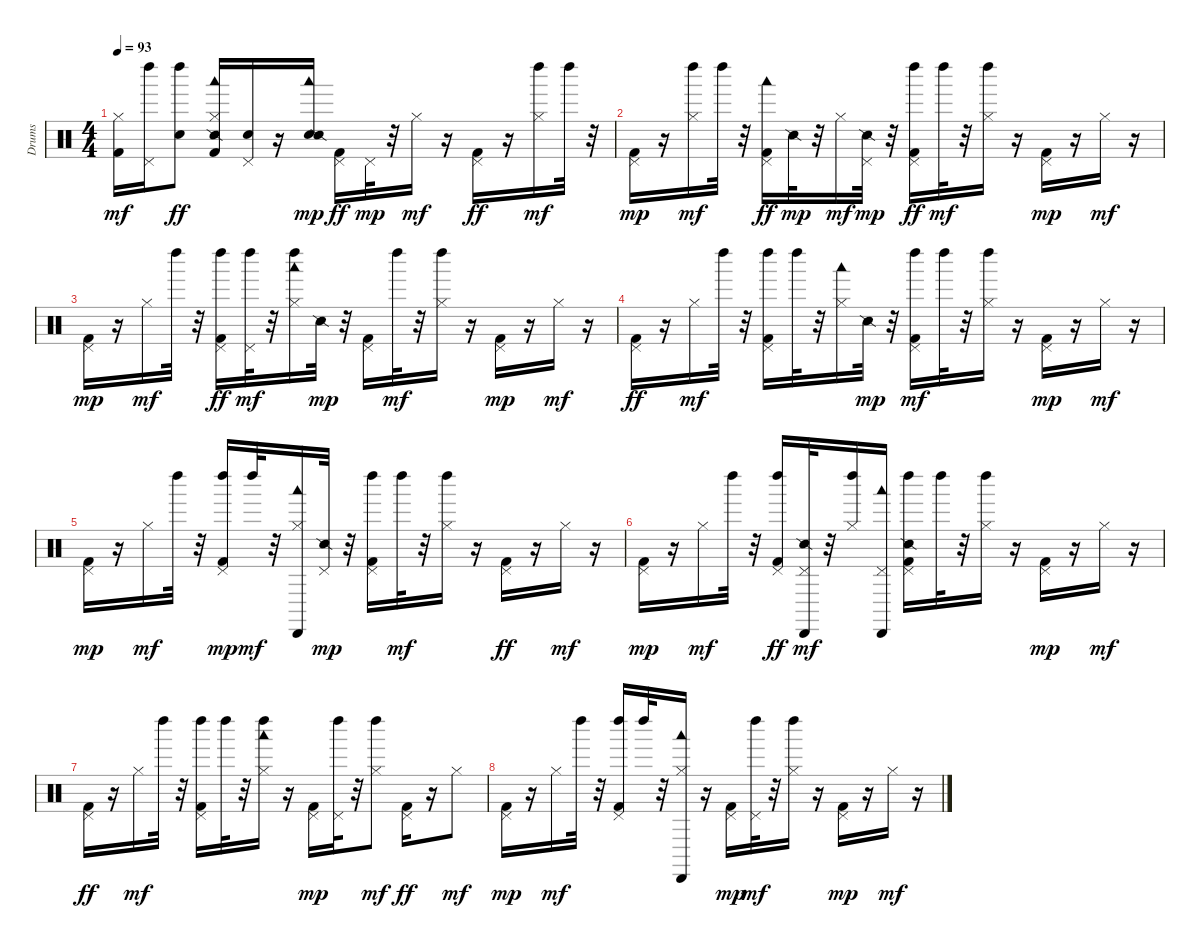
\track ("Drums" "Drums") {instrument percussion}
\staff {score}
\articulation defaults
\ts (4 4)
\tempo 93
\clef neutral
\ks c
("Kick (hit) 2" "Hi-Hat (closed)").16{dy mf} ("Left Maraca (hit)" "Pedal Hi-Hat (hit)").16 ("Left Maraca (hit)" "Snare (hit) 2").8{dy ff} ("Hi-Hat (closed)" "Woodblock low (hit)" "Snare (side stick) 2" "Kick (hit) 2").16 ("Pedal Hi-Hat (hit)" "Snare (hit) 2").16 r.16 ("Woodblock low (hit)" "Snare (hit) 2" "Snare (side stick) 2").16{dy mp} ("Pedal Hi-Hat (hit)" "Kick (hit) 2").16{dy ff} "Pedal Hi-Hat (hit)".32{dy mp} r.32 "Hi-Hat (closed)".16{dy mf} r.16 ("Pedal Hi-Hat (hit)" "Kick (hit) 2").16{dy ff} r.16 ("Left Maraca (hit)" "Hi-Hat (closed)").16{dy mf} "Left Maraca (hit)".32 r.32 |
("Kick (hit) 2" "Pedal Hi-Hat (hit)").16{dy mp} r.16 ("Left Maraca (hit)" "Hi-Hat (closed)").16{dy mf} "Left Maraca (hit)".32 r.32 ("Pedal Hi-Hat (hit)" "Woodblock low (hit)" "Kick (hit) 2").16{dy ff} "Snare (side stick) 2".32{dy mp} r.32 "Hi-Hat (closed)".16{dy mf} ("Snare (side stick) 2" "Pedal Hi-Hat (hit)").32{dy mp} r.32 ("Pedal Hi-Hat (hit)" "Left Maraca (hit)" "Kick (hit) 2").16{dy ff} "Left Maraca (hit)".32{dy mf} r.32 ("Left Maraca (hit)" "Hi-Hat (closed)").16 r.16 ("Kick (hit) 2" "Pedal Hi-Hat (hit)").16{dy mp} r.16 "Hi-Hat (closed)".16{dy mf} r.16 |
("Kick (hit) 2" "Pedal Hi-Hat (hit)").16{dy mp} r.16 "Hi-Hat (closed)".16{dy mf} "Left Maraca (hit)".32 r.32 ("Pedal Hi-Hat (hit)" "Left Maraca (hit)" "Kick (hit) 2").16{dy ff} ("Pedal Hi-Hat (hit)" "Left Maraca (hit)").32{dy mf} r.32 ("Left Maraca (hit)" "Woodblock low (hit)" "Hi-Hat (closed)").16 "Snare (side stick) 2".32{dy mp} r.32 ("Kick (hit) 2" "Pedal Hi-Hat (hit)").16 "Left Maraca (hit)".32{dy mf} r.32 ("Left Maraca (hit)" "Hi-Hat (closed)").16 r.16 ("Kick (hit) 2" "Pedal Hi-Hat (hit)").16{dy mp} r.16 "Hi-Hat (closed)".16{dy mf} r.16 |
("Pedal Hi-Hat (hit)" "Kick (hit) 2").16{dy ff} r.16 "Hi-Hat (closed)".16{dy mf} "Left Maraca (hit)".32 r.32 ("Kick (hit) 2" "Pedal Hi-Hat (hit)" "Left Maraca (hit)").16 "Left Maraca (hit)".32 r.32 ("Hi-Hat (closed)" "Woodblock low (hit)").16 "Snare (side stick) 2".32{dy mp} r.32 ("Kick (hit) 2" "Pedal Hi-Hat (hit)" "Left Maraca (hit)").16{dy mf} "Left Maraca (hit)".32 r.32 ("Hi-Hat (closed)" "Left Maraca (hit)").16 r.16 ("Kick (hit) 2" "Pedal Hi-Hat (hit)").16{dy mp} r.16 "Hi-Hat (closed)".16{dy mf} r.16 |
("Kick (hit) 2" "Pedal Hi-Hat (hit)").16{dy mp} r.16 "Hi-Hat (closed)".16{dy mf} "Left Maraca (hit)".32 r.32 ("Kick (hit) 2" "Left Maraca (hit)" "Pedal Hi-Hat (hit)").16{dy mp} "Left Maraca (hit)".32{dy mf} r.32 ("Woodblock low (hit)" "Hi-Hat (closed)" "Cabasa (hit)").16 ("Pedal Hi-Hat (hit)" "Snare (side stick) 2").32{dy mp} r.32 ("Left Maraca (hit)" "Kick (hit) 2" "Pedal Hi-Hat (hit)").16 "Left Maraca (hit)".32{dy mf} r.32 ("Left Maraca (hit)" "Hi-Hat (closed)").16 r.16 ("Pedal Hi-Hat (hit)" "Kick (hit) 2").16{dy ff} r.16 "Hi-Hat (closed)".16{dy mf} r.16 |
("Kick (hit) 2" "Pedal Hi-Hat (hit)").16{dy mp} r.16 "Hi-Hat (closed)".16{dy mf} "Left Maraca (hit)".32 r.32 ("Left Maraca (hit)" "Pedal Hi-Hat (hit)" "Kick (hit) 2").16{dy ff} ("Snare (side stick) 2" "Pedal Hi-Hat (hit)" "Cabasa (hit)").32{dy mf} r.32 ("Hi-Hat (closed)" "Left Maraca (hit)").16 ("Woodblock low (hit)" "Pedal Hi-Hat (hit)" "Cabasa (hit)").16 ("Pedal Hi-Hat (hit)" "Snare (side stick) 2" "Kick (hit) 2" "Left Maraca (hit)").16 "Left Maraca (hit)".32 r.32 ("Hi-Hat (closed)" "Left Maraca (hit)").16 r.16 ("Kick (hit) 2" "Pedal Hi-Hat (hit)").16{dy mp} r.16 "Hi-Hat (closed)".16{dy mf} r.16 |
("Pedal Hi-Hat (hit)" "Kick (hit) 2").16{dy ff} r.16 "Hi-Hat (closed)".16{dy mf} "Left Maraca (hit)".32 r.32 ("Kick (hit) 2" "Pedal Hi-Hat (hit)" "Left Maraca (hit)").16 "Left Maraca (hit)".32 r.32 ("Left Maraca (hit)" "Woodblock low (hit)" "Hi-Hat (closed)").16 r.16 ("Kick (hit) 2" "Pedal Hi-Hat (hit)").16{dy mp} ("Left Maraca (hit)" "Pedal Hi-Hat (hit)").32 r.32 ("Left Maraca (hit)" "Hi-Hat (closed)").8{dy mf} ("Pedal Hi-Hat (hit)" "Kick (hit) 2").16{dy ff} r.16 "Hi-Hat (closed)".8{dy mf} |
("Kick (hit) 2" "Pedal Hi-Hat (hit)").16{dy mp} r.16 "Hi-Hat (closed)".16{dy mf} "Left Maraca (hit)".32 r.32 ("Kick (hit) 2" "Pedal Hi-Hat (hit)" "Left Maraca (hit)").16 "Left Maraca (hit)".32 r.32 ("Hi-Hat (closed)" "Cabasa (hit)" "Woodblock low (hit)").16 r.16 ("Kick (hit) 2" "Pedal Hi-Hat (hit)").16{dy mp} ("Pedal Hi-Hat (hit)" "Left Maraca (hit)").32{dy mf} r.32 ("Hi-Hat (closed)" "Left Maraca (hit)").16 r.16 ("Kick (hit) 2" "Pedal Hi-Hat (hit)").16{dy mp} r.16 "Hi-Hat (closed)".16{dy mf} r.16
